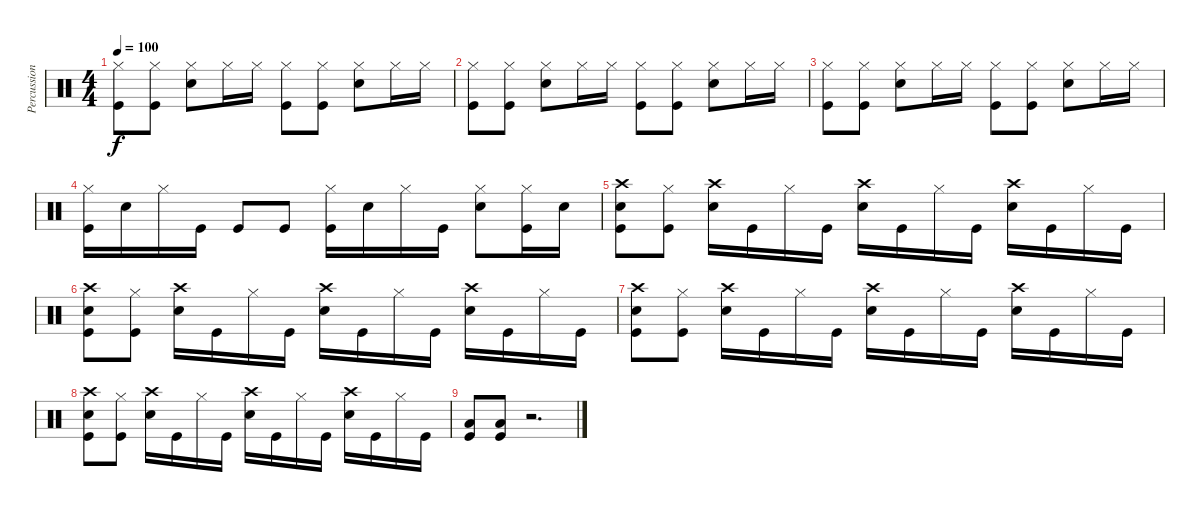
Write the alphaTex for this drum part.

\track ("Percussion" "Percussion") {instrument percussion}
\staff {score}
\articulation defaults
\ts (4 4)
\tempo 100
\clef neutral
\ks c
("Hi-Hat (closed)" "Kick (hit)").8{dy f} ("Hi-Hat (closed)" "Kick (hit)").8 ("Hi-Hat (closed)" "Snare (hit) 2").8 "Hi-Hat (closed)".16 "Hi-Hat (closed)".16 ("Hi-Hat (closed)" "Kick (hit)").8 ("Hi-Hat (closed)" "Kick (hit)").8 ("Hi-Hat (closed)" "Snare (hit) 2").8 "Hi-Hat (closed)".16 "Hi-Hat (closed)".16 |
("Hi-Hat (closed)" "Kick (hit)").8 ("Hi-Hat (closed)" "Kick (hit)").8 ("Hi-Hat (closed)" "Snare (hit) 2").8 "Hi-Hat (closed)".16 "Hi-Hat (closed)".16 ("Hi-Hat (closed)" "Kick (hit)").8 ("Hi-Hat (closed)" "Kick (hit)").8 ("Hi-Hat (closed)" "Snare (hit) 2").8 "Hi-Hat (closed)".16 "Hi-Hat (closed)".16 |
("Hi-Hat (closed)" "Kick (hit)").8 ("Hi-Hat (closed)" "Kick (hit)").8 ("Hi-Hat (closed)" "Snare (hit) 2").8 "Hi-Hat (closed)".16 "Hi-Hat (closed)".16 ("Hi-Hat (closed)" "Kick (hit)").8 ("Hi-Hat (closed)" "Kick (hit)").8 ("Hi-Hat (closed)" "Snare (hit) 2").8 "Hi-Hat (closed)".16 "Hi-Hat (closed)".16 |
("Hi-Hat (closed)" "Kick (hit)").16 "Snare (hit) 2".16 "Hi-Hat (closed)".16 "Kick (hit)".16 "Kick (hit)".8 "Kick (hit)".8 ("Hi-Hat (closed)" "Kick (hit)").16 "Snare (hit) 2".16 "Hi-Hat (closed)".16 "Kick (hit)".16 ("Hi-Hat (closed)" "Snare (hit) 2").8 ("Hi-Hat (closed)" "Kick (hit)").16 "Snare (hit) 2".16 |
("Crash high (hit)" "Snare (hit) 2" "Kick (hit)").8 ("Hi-Hat (closed)" "Kick (hit)").8 ("Crash high (hit)" "Snare (hit) 2").16 "Kick (hit)".16 "Hi-Hat (closed)".16 "Kick (hit)".16 ("Crash high (hit)" "Snare (hit) 2").16 "Kick (hit)".16 "Hi-Hat (closed)".16 "Kick (hit)".16 ("Crash high (hit)" "Snare (hit) 2").16 "Kick (hit)".16 "Hi-Hat (closed)".16 "Kick (hit)".16 |
("Crash high (hit)" "Snare (hit) 2" "Kick (hit)").8 ("Hi-Hat (closed)" "Kick (hit)").8 ("Crash high (hit)" "Snare (hit) 2").16 "Kick (hit)".16 "Hi-Hat (closed)".16 "Kick (hit)".16 ("Crash high (hit)" "Snare (hit) 2").16 "Kick (hit)".16 "Hi-Hat (closed)".16 "Kick (hit)".16 ("Crash high (hit)" "Snare (hit) 2").16 "Kick (hit)".16 "Hi-Hat (closed)".16 "Kick (hit)".16 |
("Crash high (hit)" "Snare (hit) 2" "Kick (hit)").8 ("Hi-Hat (closed)" "Kick (hit)").8 ("Crash high (hit)" "Snare (hit) 2").16 "Kick (hit)".16 "Hi-Hat (closed)".16 "Kick (hit)".16 ("Crash high (hit)" "Snare (hit) 2").16 "Kick (hit)".16 "Hi-Hat (closed)".16 "Kick (hit)".16 ("Crash high (hit)" "Snare (hit) 2").16 "Kick (hit)".16 "Hi-Hat (closed)".16 "Kick (hit)".16 |
("Crash high (hit)" "Snare (hit) 2" "Kick (hit)").8 ("Hi-Hat (closed)" "Kick (hit)").8 ("Crash high (hit)" "Snare (hit) 2").16 "Kick (hit)".16 "Hi-Hat (closed)".16 "Kick (hit)".16 ("Crash high (hit)" "Snare (hit) 2").16 "Kick (hit)".16 "Hi-Hat (closed)".16 "Kick (hit)".16 ("Crash high (hit)" "Snare (hit) 2").16 "Kick (hit)".16 "Hi-Hat (closed)".16 "Kick (hit)".16 |
("Low Tom (hit)" "Kick (hit)").8 ("Low Tom (hit)" "Kick (hit)").8 r.2{d}
